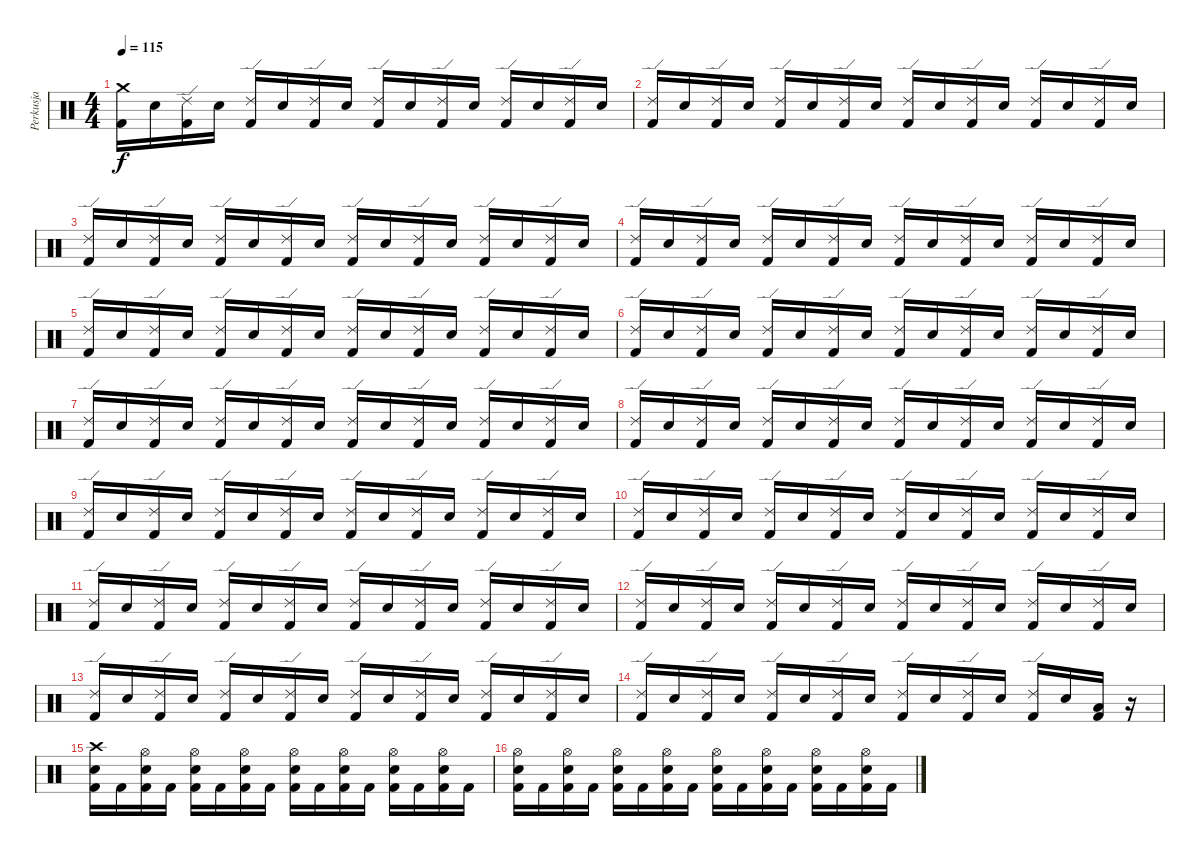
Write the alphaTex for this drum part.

\track ("Perkusja" "Perkusja") {instrument percussion}
\staff {score}
\articulation defaults
\ts (4 4)
\tempo 115
\clef neutral
\ks c
("Kick (hit) 2" "Crash medium (hit)").16{dy f} "Snare (hit) 2".16 ("Kick (hit) 2" "Ride (edge) 2").16 "Snare (hit) 2".16 ("Kick (hit) 2" "Ride (edge) 2").16 "Snare (hit) 2".16 ("Kick (hit) 2" "Ride (edge) 2").16 "Snare (hit) 2".16 ("Kick (hit) 2" "Ride (edge) 2").16 "Snare (hit) 2".16 ("Kick (hit) 2" "Ride (edge) 2").16 "Snare (hit) 2".16 ("Kick (hit) 2" "Ride (edge) 2").16 "Snare (hit) 2".16 ("Kick (hit) 2" "Ride (edge) 2").16 "Snare (hit) 2".16 |
("Kick (hit) 2" "Ride (edge) 2").16 "Snare (hit) 2".16 ("Kick (hit) 2" "Ride (edge) 2").16 "Snare (hit) 2".16 ("Kick (hit) 2" "Ride (edge) 2").16 "Snare (hit) 2".16 ("Kick (hit) 2" "Ride (edge) 2").16 "Snare (hit) 2".16 ("Kick (hit) 2" "Ride (edge) 2").16 "Snare (hit) 2".16 ("Kick (hit) 2" "Ride (edge) 2").16 "Snare (hit) 2".16 ("Kick (hit) 2" "Ride (edge) 2").16 "Snare (hit) 2".16 ("Kick (hit) 2" "Ride (edge) 2").16 "Snare (hit) 2".16 |
("Kick (hit) 2" "Ride (edge) 2").16 "Snare (hit) 2".16 ("Kick (hit) 2" "Ride (edge) 2").16 "Snare (hit) 2".16 ("Kick (hit) 2" "Ride (edge) 2").16 "Snare (hit) 2".16 ("Kick (hit) 2" "Ride (edge) 2").16 "Snare (hit) 2".16 ("Kick (hit) 2" "Ride (edge) 2").16 "Snare (hit) 2".16 ("Kick (hit) 2" "Ride (edge) 2").16 "Snare (hit) 2".16 ("Kick (hit) 2" "Ride (edge) 2").16 "Snare (hit) 2".16 ("Kick (hit) 2" "Ride (edge) 2").16 "Snare (hit) 2".16 |
("Kick (hit) 2" "Ride (edge) 2").16 "Snare (hit) 2".16 ("Kick (hit) 2" "Ride (edge) 2").16 "Snare (hit) 2".16 ("Kick (hit) 2" "Ride (edge) 2").16 "Snare (hit) 2".16 ("Kick (hit) 2" "Ride (edge) 2").16 "Snare (hit) 2".16 ("Kick (hit) 2" "Ride (edge) 2").16 "Snare (hit) 2".16 ("Kick (hit) 2" "Ride (edge) 2").16 "Snare (hit) 2".16 ("Kick (hit) 2" "Ride (edge) 2").16 "Snare (hit) 2".16 ("Kick (hit) 2" "Ride (edge) 2").16 "Snare (hit) 2".16 |
("Kick (hit) 2" "Ride (edge) 2").16 "Snare (hit) 2".16 ("Kick (hit) 2" "Ride (edge) 2").16 "Snare (hit) 2".16 ("Kick (hit) 2" "Ride (edge) 2").16 "Snare (hit) 2".16 ("Kick (hit) 2" "Ride (edge) 2").16 "Snare (hit) 2".16 ("Kick (hit) 2" "Ride (edge) 2").16 "Snare (hit) 2".16 ("Kick (hit) 2" "Ride (edge) 2").16 "Snare (hit) 2".16 ("Kick (hit) 2" "Ride (edge) 2").16 "Snare (hit) 2".16 ("Kick (hit) 2" "Ride (edge) 2").16 "Snare (hit) 2".16 |
("Kick (hit) 2" "Ride (edge) 2").16 "Snare (hit) 2".16 ("Kick (hit) 2" "Ride (edge) 2").16 "Snare (hit) 2".16 ("Kick (hit) 2" "Ride (edge) 2").16 "Snare (hit) 2".16 ("Kick (hit) 2" "Ride (edge) 2").16 "Snare (hit) 2".16 ("Kick (hit) 2" "Ride (edge) 2").16 "Snare (hit) 2".16 ("Kick (hit) 2" "Ride (edge) 2").16 "Snare (hit) 2".16 ("Kick (hit) 2" "Ride (edge) 2").16 "Snare (hit) 2".16 ("Kick (hit) 2" "Ride (edge) 2").16 "Snare (hit) 2".16 |
("Kick (hit) 2" "Ride (edge) 2").16 "Snare (hit) 2".16 ("Kick (hit) 2" "Ride (edge) 2").16 "Snare (hit) 2".16 ("Kick (hit) 2" "Ride (edge) 2").16 "Snare (hit) 2".16 ("Kick (hit) 2" "Ride (edge) 2").16 "Snare (hit) 2".16 ("Kick (hit) 2" "Ride (edge) 2").16 "Snare (hit) 2".16 ("Kick (hit) 2" "Ride (edge) 2").16 "Snare (hit) 2".16 ("Kick (hit) 2" "Ride (edge) 2").16 "Snare (hit) 2".16 ("Kick (hit) 2" "Ride (edge) 2").16 "Snare (hit) 2".16 |
("Kick (hit) 2" "Ride (edge) 2").16 "Snare (hit) 2".16 ("Kick (hit) 2" "Ride (edge) 2").16 "Snare (hit) 2".16 ("Kick (hit) 2" "Ride (edge) 2").16 "Snare (hit) 2".16 ("Kick (hit) 2" "Ride (edge) 2").16 "Snare (hit) 2".16 ("Kick (hit) 2" "Ride (edge) 2").16 "Snare (hit) 2".16 ("Kick (hit) 2" "Ride (edge) 2").16 "Snare (hit) 2".16 ("Kick (hit) 2" "Ride (edge) 2").16 "Snare (hit) 2".16 ("Kick (hit) 2" "Ride (edge) 2").16 "Snare (hit) 2".16 |
("Kick (hit) 2" "Ride (edge) 2").16 "Snare (hit) 2".16 ("Kick (hit) 2" "Ride (edge) 2").16 "Snare (hit) 2".16 ("Kick (hit) 2" "Ride (edge) 2").16 "Snare (hit) 2".16 ("Kick (hit) 2" "Ride (edge) 2").16 "Snare (hit) 2".16 ("Kick (hit) 2" "Ride (edge) 2").16 "Snare (hit) 2".16 ("Kick (hit) 2" "Ride (edge) 2").16 "Snare (hit) 2".16 ("Kick (hit) 2" "Ride (edge) 2").16 "Snare (hit) 2".16 ("Kick (hit) 2" "Ride (edge) 2").16 "Snare (hit) 2".16 |
("Kick (hit) 2" "Ride (edge) 2").16 "Snare (hit) 2".16 ("Kick (hit) 2" "Ride (edge) 2").16 "Snare (hit) 2".16 ("Kick (hit) 2" "Ride (edge) 2").16 "Snare (hit) 2".16 ("Kick (hit) 2" "Ride (edge) 2").16 "Snare (hit) 2".16 ("Kick (hit) 2" "Ride (edge) 2").16 "Snare (hit) 2".16 ("Kick (hit) 2" "Ride (edge) 2").16 "Snare (hit) 2".16 ("Kick (hit) 2" "Ride (edge) 2").16 "Snare (hit) 2".16 ("Kick (hit) 2" "Ride (edge) 2").16 "Snare (hit) 2".16 |
("Kick (hit) 2" "Ride (edge) 2").16 "Snare (hit) 2".16 ("Kick (hit) 2" "Ride (edge) 2").16 "Snare (hit) 2".16 ("Kick (hit) 2" "Ride (edge) 2").16 "Snare (hit) 2".16 ("Kick (hit) 2" "Ride (edge) 2").16 "Snare (hit) 2".16 ("Kick (hit) 2" "Ride (edge) 2").16 "Snare (hit) 2".16 ("Kick (hit) 2" "Ride (edge) 2").16 "Snare (hit) 2".16 ("Kick (hit) 2" "Ride (edge) 2").16 "Snare (hit) 2".16 ("Kick (hit) 2" "Ride (edge) 2").16 "Snare (hit) 2".16 |
("Kick (hit) 2" "Ride (edge) 2").16 "Snare (hit) 2".16 ("Kick (hit) 2" "Ride (edge) 2").16 "Snare (hit) 2".16 ("Kick (hit) 2" "Ride (edge) 2").16 "Snare (hit) 2".16 ("Kick (hit) 2" "Ride (edge) 2").16 "Snare (hit) 2".16 ("Kick (hit) 2" "Ride (edge) 2").16 "Snare (hit) 2".16 ("Kick (hit) 2" "Ride (edge) 2").16 "Snare (hit) 2".16 ("Kick (hit) 2" "Ride (edge) 2").16 "Snare (hit) 2".16 ("Kick (hit) 2" "Ride (edge) 2").16 "Snare (hit) 2".16 |
("Kick (hit) 2" "Ride (edge) 2").16 "Snare (hit) 2".16 ("Kick (hit) 2" "Ride (edge) 2").16 "Snare (hit) 2".16 ("Kick (hit) 2" "Ride (edge) 2").16 "Snare (hit) 2".16 ("Kick (hit) 2" "Ride (edge) 2").16 "Snare (hit) 2".16 ("Kick (hit) 2" "Ride (edge) 2").16 "Snare (hit) 2".16 ("Kick (hit) 2" "Ride (edge) 2").16 "Snare (hit) 2".16 ("Kick (hit) 2" "Ride (edge) 2").16 "Snare (hit) 2".16 ("Kick (hit) 2" "Ride (edge) 2").16 "Snare (hit) 2".16 |
("Kick (hit) 2" "Ride (edge) 2").16 "Snare (hit) 2".16 ("Kick (hit) 2" "Ride (edge) 2").16 "Snare (hit) 2".16 ("Kick (hit) 2" "Ride (edge) 2").16 "Snare (hit) 2".16 ("Kick (hit) 2" "Ride (edge) 2").16 "Snare (hit) 2".16 ("Kick (hit) 2" "Ride (edge) 2").16 "Snare (hit) 2".16 ("Kick (hit) 2" "Ride (edge) 2").16 "Snare (hit) 2".16 ("Kick (hit) 2" "Ride (edge) 2").16 "Snare (hit) 2".16 ("Kick (hit) 2" "Low Floor Tom (hit)").16 r.16 |
("Kick (hit) 2" "Crash high (hit)" "Snare (hit) 2").16 "Kick (hit) 2".16 ("Kick (hit) 2" "Hi-Hat (open)" "Snare (hit) 2").16 "Kick (hit) 2".16 ("Kick (hit) 2" "Snare (hit) 2" "Hi-Hat (open)").16 "Kick (hit) 2".16 ("Kick (hit) 2" "Hi-Hat (open)" "Snare (hit) 2").16 "Kick (hit) 2".16 ("Kick (hit) 2" "Snare (hit) 2" "Hi-Hat (open)").16 "Kick (hit) 2".16 ("Kick (hit) 2" "Hi-Hat (open)" "Snare (hit) 2").16 "Kick (hit) 2".16 ("Kick (hit) 2" "Snare (hit) 2" "Hi-Hat (open)").16 "Kick (hit) 2".16 ("Kick (hit) 2" "Hi-Hat (open)" "Snare (hit) 2").16 "Kick (hit) 2".16 |
("Kick (hit) 2" "Snare (hit) 2" "Hi-Hat (open)").16 "Kick (hit) 2".16 ("Kick (hit) 2" "Hi-Hat (open)" "Snare (hit) 2").16 "Kick (hit) 2".16 ("Kick (hit) 2" "Snare (hit) 2" "Hi-Hat (open)").16 "Kick (hit) 2".16 ("Kick (hit) 2" "Hi-Hat (open)" "Snare (hit) 2").16 "Kick (hit) 2".16 ("Kick (hit) 2" "Snare (hit) 2" "Hi-Hat (open)").16 "Kick (hit) 2".16 ("Kick (hit) 2" "Hi-Hat (open)" "Snare (hit) 2").16 "Kick (hit) 2".16 ("Kick (hit) 2" "Snare (hit) 2" "Hi-Hat (open)").16 "Kick (hit) 2".16 ("Kick (hit) 2" "Hi-Hat (open)" "Snare (hit) 2").16 "Kick (hit) 2".16
